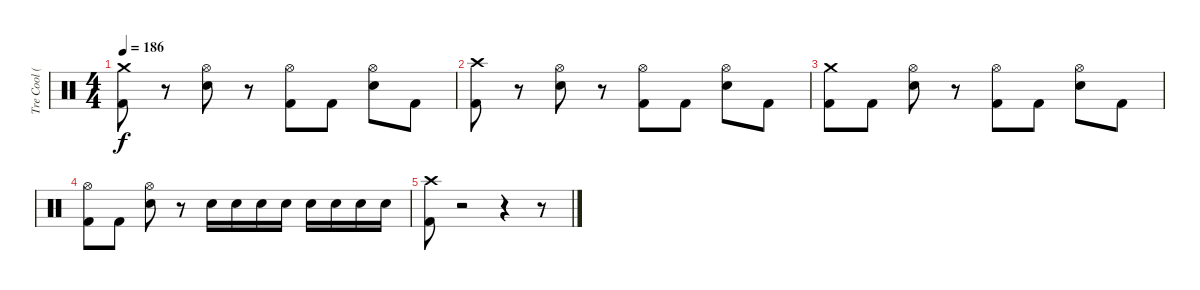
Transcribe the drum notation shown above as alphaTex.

\track ("Tre Cool (Drums)" "Tre Cool (") {instrument percussion}
\staff {score}
\articulation defaults
\ts (4 4)
\tempo 186
\clef neutral
\ks c
("Kick (hit) 2" "Crash medium (hit)").8{dy f} r.8 ("Snare (hit) 2" "Hi-Hat (open)").8 r.8 ("Kick (hit) 2" "Hi-Hat (open)").8 "Kick (hit) 2".8 ("Snare (hit) 2" "Hi-Hat (open)").8 "Kick (hit) 2".8 |
("Kick (hit) 2" "Crash high (hit)").8 r.8 ("Snare (hit) 2" "Hi-Hat (open)").8 r.8 ("Kick (hit) 2" "Hi-Hat (open)").8 "Kick (hit) 2".8 ("Snare (hit) 2" "Hi-Hat (open)").8 "Kick (hit) 2".8 |
("Crash medium (hit)" "Kick (hit) 2").8 "Kick (hit) 2".8 ("Hi-Hat (open)" "Snare (hit) 2").8 r.8 ("Hi-Hat (open)" "Kick (hit) 2").8 "Kick (hit) 2".8 ("Hi-Hat (open)" "Snare (hit) 2").8 "Kick (hit) 2".8 |
("Hi-Hat (open)" "Kick (hit) 2").8 "Kick (hit) 2".8 ("Hi-Hat (open)" "Snare (hit) 2").8 r.8 "Snare (hit) 2".16 "Snare (hit) 2".16 "Snare (hit) 2".16 "Snare (hit) 2".16 "Snare (hit) 2".16 "Snare (hit) 2".16 "Snare (hit) 2".16 "Snare (hit) 2".16 |
("Crash high (hit)" "Kick (hit) 2").8 r.2 r.4 r.8
